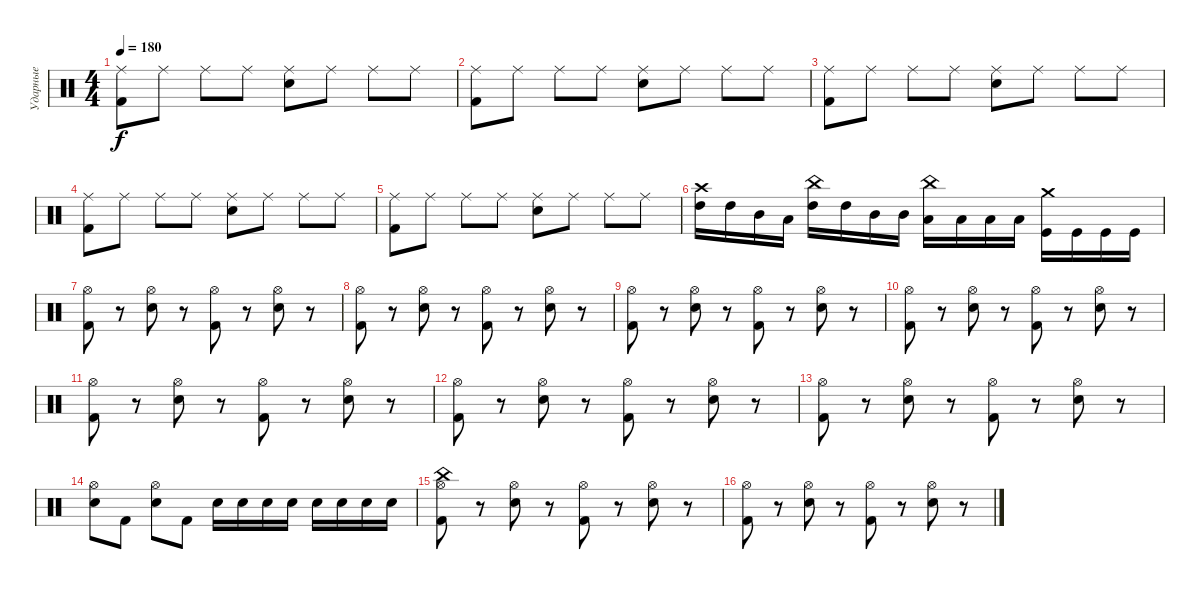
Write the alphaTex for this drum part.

\track ("Ударные" "Ударные") {instrument percussion}
\staff {score}
\articulation defaults
\ts (4 4)
\tempo 180
\clef neutral
\ks c
("Kick (hit) 2" "Ride (middle)").8{dy f} "Ride (middle)".8 "Ride (middle)".8 "Ride (middle)".8 ("Ride (middle)" "Electric Snare (hit)").8 "Ride (middle)".8 "Ride (middle)".8 "Ride (middle)".8 |
("Kick (hit) 2" "Ride (middle)").8 "Ride (middle)".8 "Ride (middle)".8 "Ride (middle)".8 ("Ride (middle)" "Electric Snare (hit)").8 "Ride (middle)".8 "Ride (middle)".8 "Ride (middle)".8 |
("Kick (hit) 2" "Ride (middle)").8 "Ride (middle)".8 "Ride (middle)".8 "Ride (middle)".8 ("Ride (middle)" "Electric Snare (hit)").8 "Ride (middle)".8 "Ride (middle)".8 "Ride (middle)".8 |
("Kick (hit) 2" "Ride (middle)").8 "Ride (middle)".8 "Ride (middle)".8 "Ride (middle)".8 ("Ride (middle)" "Electric Snare (hit)").8 "Ride (middle)".8 "Ride (middle)".8 "Ride (middle)".8 |
("Kick (hit) 2" "Ride (middle)").8 "Ride (middle)".8 "Ride (middle)".8 "Ride (middle)".8 ("Ride (middle)" "Electric Snare (hit)").8 "Ride (middle)".8 "Ride (middle)".8 "Ride (middle)".8 |
("High Tom (hit)" "Crash high (hit)").16 "High Tom (hit)".16 "Mid Tom (hit)".16 "Low Tom (hit)".16 ("High Tom (hit)" "China (hit)").16 "High Tom (hit)".16 "Mid Tom (hit)".16 "Mid Tom (hit)".16 ("Low Tom (hit)" "China (hit)").16 "Low Tom (hit)".16 "Low Tom (hit)".16 "Low Tom (hit)".16 ("Kick (hit)" "Crash medium (hit)").16 "Kick (hit)".16 "Kick (hit)".16 "Kick (hit)".16 |
("Kick (hit) 2" "Hi-Hat (open)").8 r.8 ("Electric Snare (hit)" "Hi-Hat (open)").8 r.8 ("Kick (hit) 2" "Hi-Hat (open)").8 r.8 ("Electric Snare (hit)" "Hi-Hat (open)").8 r.8 |
("Kick (hit) 2" "Hi-Hat (open)").8 r.8 ("Electric Snare (hit)" "Hi-Hat (open)").8 r.8 ("Kick (hit) 2" "Hi-Hat (open)").8 r.8 ("Electric Snare (hit)" "Hi-Hat (open)").8 r.8 |
("Kick (hit) 2" "Hi-Hat (open)").8 r.8 ("Electric Snare (hit)" "Hi-Hat (open)").8 r.8 ("Kick (hit) 2" "Hi-Hat (open)").8 r.8 ("Electric Snare (hit)" "Hi-Hat (open)").8 r.8 |
("Kick (hit) 2" "Hi-Hat (open)").8 r.8 ("Electric Snare (hit)" "Hi-Hat (open)").8 r.8 ("Kick (hit) 2" "Hi-Hat (open)").8 r.8 ("Electric Snare (hit)" "Hi-Hat (open)").8 r.8 |
("Kick (hit) 2" "Hi-Hat (open)").8 r.8 ("Electric Snare (hit)" "Hi-Hat (open)").8 r.8 ("Kick (hit) 2" "Hi-Hat (open)").8 r.8 ("Electric Snare (hit)" "Hi-Hat (open)").8 r.8 |
("Kick (hit) 2" "Hi-Hat (open)").8 r.8 ("Electric Snare (hit)" "Hi-Hat (open)").8 r.8 ("Kick (hit) 2" "Hi-Hat (open)").8 r.8 ("Electric Snare (hit)" "Hi-Hat (open)").8 r.8 |
("Kick (hit) 2" "Hi-Hat (open)").8 r.8 ("Electric Snare (hit)" "Hi-Hat (open)").8 r.8 ("Kick (hit) 2" "Hi-Hat (open)").8 r.8 ("Electric Snare (hit)" "Hi-Hat (open)").8 r.8 |
("Electric Snare (hit)" "Hi-Hat (open)").8 "Kick (hit) 2".8 ("Electric Snare (hit)" "Hi-Hat (open)").8 "Kick (hit) 2".8 "Electric Snare (hit)".16 "Electric Snare (hit)".16 "Electric Snare (hit)".16 "Electric Snare (hit)".16 "Electric Snare (hit)".16 "Electric Snare (hit)".16 "Electric Snare (hit)".16 "Electric Snare (hit)".16 |
("Kick (hit) 2" "Hi-Hat (open)" "China (hit)").8 r.8 ("Electric Snare (hit)" "Hi-Hat (open)").8 r.8 ("Kick (hit) 2" "Hi-Hat (open)").8 r.8 ("Electric Snare (hit)" "Hi-Hat (open)").8 r.8 |
("Kick (hit) 2" "Hi-Hat (open)").8 r.8 ("Electric Snare (hit)" "Hi-Hat (open)").8 r.8 ("Kick (hit) 2" "Hi-Hat (open)").8 r.8 ("Electric Snare (hit)" "Hi-Hat (open)").8 r.8
